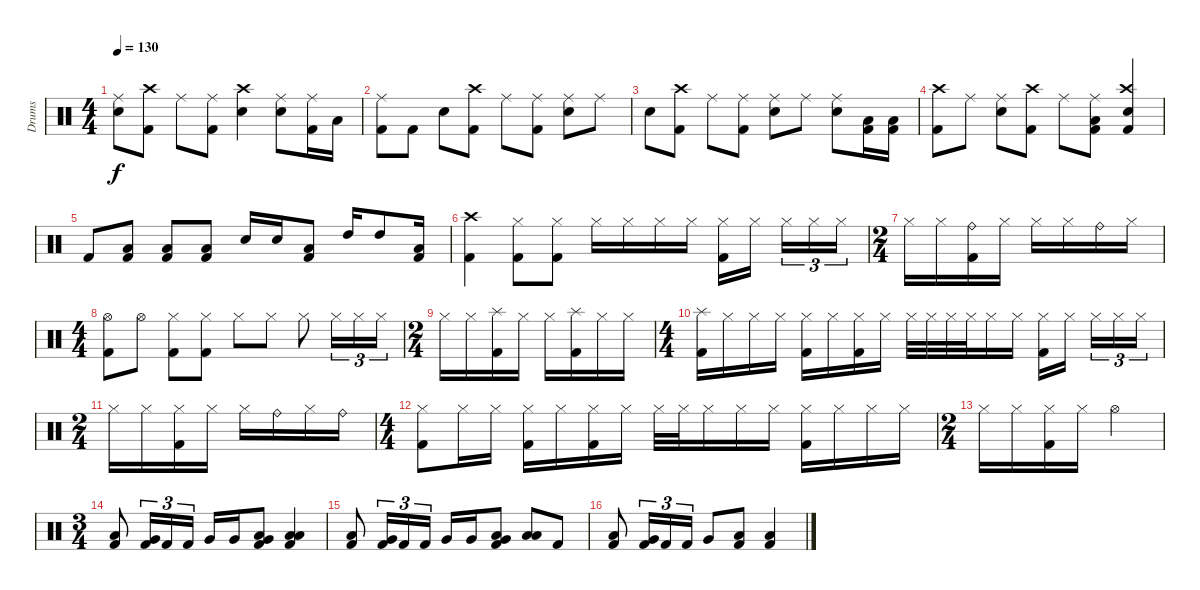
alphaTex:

\track ("Drums" "Drums") {instrument percussion}
\staff {score}
\articulation defaults
\ts (4 4)
\tempo 130
\clef neutral
\ks c
("Ride (middle)" "Snare (hit) 2").8{dy f} ("Crash high (hit)" "Kick (hit) 2").8 "Ride (middle)".8 ("Ride (middle)" "Kick (hit) 2").8 ("Crash high (hit)" "Snare (hit) 2").4 ("Ride (middle)" "Snare (hit) 2").8 ("Ride (middle)" "Kick (hit) 2").16 "Low Tom (hit)".16 |
("Ride (middle)" "Kick (hit) 2").8 "Kick (hit) 2".8 "Snare (hit) 2".8 ("Crash high (hit)" "Kick (hit) 2").8 "Ride (middle)".8 ("Ride (middle)" "Kick (hit) 2").8 ("Ride (middle)" "Snare (hit) 2").8 "Ride (middle)".8 |
"Snare (hit) 2".8 ("Crash high (hit)" "Kick (hit) 2").8 "Ride (middle)".8 ("Ride (middle)" "Kick (hit) 2").8 ("Ride (middle)" "Snare (hit) 2").8 "Ride (middle)".8 ("Ride (middle)" "Snare (hit) 2").8 ("Low Floor Tom (hit)" "Kick (hit) 2").16 ("Low Floor Tom (hit)" "Kick (hit) 2").16 |
("Crash high (hit)" "Kick (hit) 2").8 "Ride (middle)".8 ("Ride (middle)" "Snare (hit) 2").8 ("Crash high (hit)" "Kick (hit) 2").8 "Ride (middle)".8 ("Ride (middle)" "Low Floor Tom (hit)" "Kick (hit) 2").8 ("Crash high (hit)" "Snare (hit) 2" "Kick (hit) 2").4 |
"Kick (hit) 2".8{volume 2} ("Low Floor Tom (hit)" "Kick (hit) 2").8{volume 16} ("Low Floor Tom (hit)" "Kick (hit) 2").8 ("Low Floor Tom (hit)" "Kick (hit) 2").8 "Snare (hit) 2".16 "Snare (hit) 2".16 ("Low Floor Tom (hit)" "Kick (hit) 2").8 "High Tom (hit)".16 "High Tom (hit)".8 ("Low Floor Tom (hit)" "Kick (hit) 2").16 |
("Crash high (hit)" "Kick (hit) 2").4 ("Hi-Hat (closed)" "Kick (hit) 2").8 ("Hi-Hat (closed)" "Kick (hit) 2").8 "Hi-Hat (closed)".16 "Hi-Hat (closed)".16 "Hi-Hat (closed)".16 "Hi-Hat (closed)".16 ("Hi-Hat (closed)" "Kick (hit) 2").16 "Hi-Hat (closed)".16 "Hi-Hat (closed)".16{tu (3 2)} "Hi-Hat (closed)".16{tu (3 2)} "Hi-Hat (closed)".16{tu (3 2)} |
\ts (2 4)
"Hi-Hat (closed)".16 "Hi-Hat (closed)".16 ("Ride (bell)" "Kick (hit) 2").16 "Hi-Hat (closed)".16 "Hi-Hat (closed)".16 "Hi-Hat (closed)".16 "Ride (bell)".16 "Hi-Hat (closed)".16 |
\ts (4 4)
("Hi-Hat (open)" "Kick (hit) 2").8 "Hi-Hat (open)".8 ("Hi-Hat (closed)" "Kick (hit) 2").8 ("Hi-Hat (closed)" "Kick (hit) 2").8 "Hi-Hat (closed)".8 "Hi-Hat (closed)".8 "Hi-Hat (closed)".8 "Hi-Hat (closed)".16{tu (3 2)} "Hi-Hat (closed)".16{tu (3 2)} "Hi-Hat (closed)".16{tu (3 2)} |
\ts (2 4)
"Hi-Hat (closed)".16 "Hi-Hat (closed)".16 ("Splash (hit)" "Kick (hit) 2").16 "Hi-Hat (closed)".16 "Hi-Hat (closed)".16 ("Splash (hit)" "Kick (hit) 2").16 "Hi-Hat (closed)".16 "Hi-Hat (closed)".16 |
\ts (4 4)
("Splash (hit)" "Kick (hit) 2").16 "Hi-Hat (closed)".16 "Hi-Hat (closed)".16 "Hi-Hat (closed)".16 ("Hi-Hat (closed)" "Kick (hit) 2").16 "Hi-Hat (closed)".16 ("Hi-Hat (closed)" "Kick (hit) 2").16 "Hi-Hat (closed)".16 "Hi-Hat (closed)".32 "Hi-Hat (closed)".32 "Hi-Hat (closed)".32 "Hi-Hat (closed)".32 "Hi-Hat (closed)".16 "Hi-Hat (closed)".16 ("Hi-Hat (closed)" "Kick (hit) 2").16 "Hi-Hat (closed)".16 "Hi-Hat (closed)".16{tu (3 2)} "Hi-Hat (closed)".16{tu (3 2)} "Hi-Hat (closed)".16{tu (3 2)} |
\ts (2 4)
"Hi-Hat (closed)".16 "Hi-Hat (closed)".16 ("Hi-Hat (closed)" "Kick (hit) 2").16 "Hi-Hat (closed)".16 "Hi-Hat (closed)".16 "Ride (bell)".16 "Hi-Hat (closed)".16 "Ride (bell)".16 |
\ts (4 4)
("Hi-Hat (closed)" "Kick (hit) 2").8 "Hi-Hat (closed)".16 "Hi-Hat (closed)".16 ("Hi-Hat (closed)" "Kick (hit) 2").16 "Hi-Hat (closed)".16 ("Hi-Hat (closed)" "Kick (hit) 2").16 "Hi-Hat (closed)".16 "Hi-Hat (closed)".32 "Hi-Hat (closed)".32 "Hi-Hat (closed)".16 "Hi-Hat (closed)".16 "Hi-Hat (closed)".16 ("Hi-Hat (closed)" "Kick (hit) 2").16 "Hi-Hat (closed)".16 "Hi-Hat (closed)".16 "Hi-Hat (closed)".16 |
\ts (2 4)
"Hi-Hat (closed)".16 "Hi-Hat (closed)".16 ("Hi-Hat (closed)" "Kick (hit) 2").16 "Hi-Hat (closed)".16 "Hi-Hat (open)".4 |
\ts (3 4)
("Low Floor Tom (hit)" "Kick (hit) 2").8 ("Very Low Tom (hit)" "Kick (hit) 2").16{tu (3 2)} "Kick (hit) 2".16{tu (3 2)} "Kick (hit) 2".16{tu (3 2)} "Very Low Tom (hit)".16 "Very Low Tom (hit)".16 ("Low Floor Tom (hit)" "Very Low Tom (hit)" "Kick (hit) 2").8 ("Low Tom (hit)" "Low Floor Tom (hit)" "Kick (hit) 2").4 |
("Low Floor Tom (hit)" "Kick (hit) 2").8 ("Very Low Tom (hit)" "Kick (hit) 2").16{tu (3 2)} "Kick (hit) 2".16{tu (3 2)} "Kick (hit) 2".16{tu (3 2)} "Very Low Tom (hit)".16 "Very Low Tom (hit)".16 ("Low Floor Tom (hit)" "Very Low Tom (hit)" "Kick (hit) 2").8 ("Low Tom (hit)" "Low Floor Tom (hit)").8 "Kick (hit) 2".8 |
("Low Floor Tom (hit)" "Kick (hit) 2").8 ("Very Low Tom (hit)" "Kick (hit) 2").16{tu (3 2)} "Kick (hit) 2".16{tu (3 2)} "Kick (hit) 2".16{tu (3 2)} "Very Low Tom (hit)".8 ("Low Floor Tom (hit)" "Kick (hit) 2").8 ("Low Tom (hit)" "Kick (hit) 2").4
